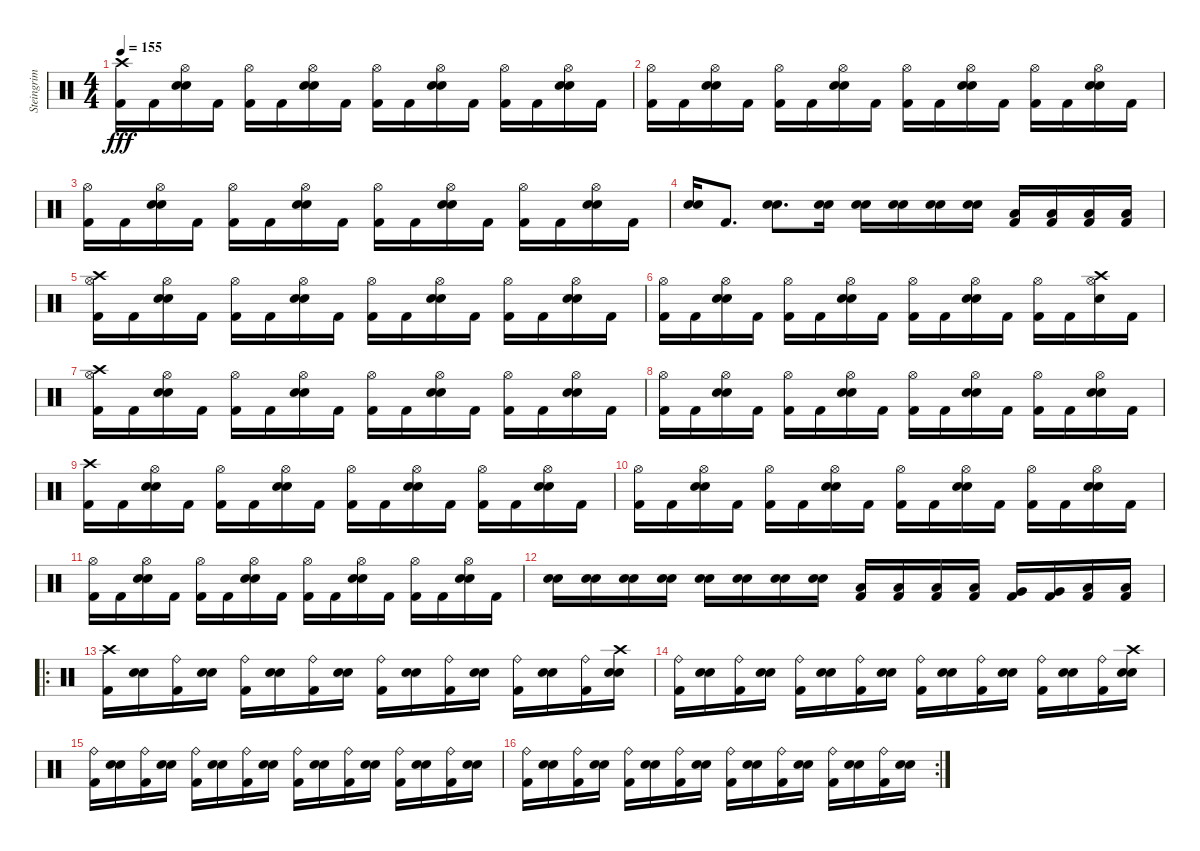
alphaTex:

\track ("Steingrim" "Steingrim") {instrument percussion}
\staff {score}
\articulation defaults
\ts (4 4)
\tempo 155
\clef neutral
\ks c
("Kick (hit) 2" "Crash high (hit)").16{dy fff} "Kick (hit) 2".16 ("Snare (hit) 2" "Electric Snare (hit)" "Hi-Hat (open)").16 "Kick (hit) 2".16 ("Kick (hit) 2" "Hi-Hat (open)").16 "Kick (hit) 2".16 ("Snare (hit) 2" "Electric Snare (hit)" "Hi-Hat (open)").16 "Kick (hit) 2".16 ("Kick (hit) 2" "Hi-Hat (open)").16 "Kick (hit) 2".16 ("Snare (hit) 2" "Electric Snare (hit)" "Hi-Hat (open)").16 "Kick (hit) 2".16 ("Kick (hit) 2" "Hi-Hat (open)").16 "Kick (hit) 2".16 ("Snare (hit) 2" "Electric Snare (hit)" "Hi-Hat (open)").16 "Kick (hit) 2".16 |
("Kick (hit) 2" "Hi-Hat (open)").16 "Kick (hit) 2".16 ("Snare (hit) 2" "Electric Snare (hit)" "Hi-Hat (open)").16 "Kick (hit) 2".16 ("Kick (hit) 2" "Hi-Hat (open)").16 "Kick (hit) 2".16 ("Snare (hit) 2" "Electric Snare (hit)" "Hi-Hat (open)").16 "Kick (hit) 2".16 ("Kick (hit) 2" "Hi-Hat (open)").16 "Kick (hit) 2".16 ("Snare (hit) 2" "Electric Snare (hit)" "Hi-Hat (open)").16 "Kick (hit) 2".16 ("Kick (hit) 2" "Hi-Hat (open)").16 "Kick (hit) 2".16 ("Snare (hit) 2" "Electric Snare (hit)" "Hi-Hat (open)").16 "Kick (hit) 2".16 |
("Kick (hit) 2" "Hi-Hat (open)").16 "Kick (hit) 2".16 ("Snare (hit) 2" "Electric Snare (hit)" "Hi-Hat (open)").16 "Kick (hit) 2".16 ("Kick (hit) 2" "Hi-Hat (open)").16 "Kick (hit) 2".16 ("Snare (hit) 2" "Electric Snare (hit)" "Hi-Hat (open)").16 "Kick (hit) 2".16 ("Kick (hit) 2" "Hi-Hat (open)").16 "Kick (hit) 2".16 ("Snare (hit) 2" "Electric Snare (hit)" "Hi-Hat (open)").16 "Kick (hit) 2".16 ("Kick (hit) 2" "Hi-Hat (open)").16 "Kick (hit) 2".16 ("Snare (hit) 2" "Electric Snare (hit)" "Hi-Hat (open)").16 "Kick (hit) 2".16 |
("Snare (hit) 2" "Electric Snare (hit)").16 "Kick (hit) 2".8{d} ("Snare (hit) 2" "Electric Snare (hit)").8{d} ("Snare (hit) 2" "Electric Snare (hit)").16 ("Snare (hit) 2" "Electric Snare (hit)").16 ("Snare (hit) 2" "Electric Snare (hit)").16 ("Snare (hit) 2" "Electric Snare (hit)").16 ("Snare (hit) 2" "Electric Snare (hit)").16 ("Low Tom (hit)" "Kick (hit) 2").16 ("Low Tom (hit)" "Kick (hit) 2").16 ("Low Tom (hit)" "Kick (hit) 2").16 ("Low Tom (hit)" "Kick (hit) 2").16 |
("Kick (hit) 2" "Hi-Hat (open)" "Crash high (hit)").16 "Kick (hit) 2".16 ("Snare (hit) 2" "Electric Snare (hit)" "Hi-Hat (open)").16 "Kick (hit) 2".16 ("Kick (hit) 2" "Hi-Hat (open)").16 "Kick (hit) 2".16 ("Snare (hit) 2" "Electric Snare (hit)" "Hi-Hat (open)").16 "Kick (hit) 2".16 ("Kick (hit) 2" "Hi-Hat (open)").16 "Kick (hit) 2".16 ("Snare (hit) 2" "Electric Snare (hit)" "Hi-Hat (open)").16 "Kick (hit) 2".16 ("Kick (hit) 2" "Hi-Hat (open)").16 "Kick (hit) 2".16 ("Snare (hit) 2" "Electric Snare (hit)" "Hi-Hat (open)").16 "Kick (hit) 2".16 |
("Kick (hit) 2" "Hi-Hat (open)").16 "Kick (hit) 2".16 ("Snare (hit) 2" "Electric Snare (hit)" "Hi-Hat (open)").16 "Kick (hit) 2".16 ("Kick (hit) 2" "Hi-Hat (open)").16 "Kick (hit) 2".16 ("Snare (hit) 2" "Electric Snare (hit)" "Hi-Hat (open)").16 "Kick (hit) 2".16 ("Kick (hit) 2" "Hi-Hat (open)").16 "Kick (hit) 2".16 ("Snare (hit) 2" "Electric Snare (hit)" "Hi-Hat (open)").16 "Kick (hit) 2".16 ("Kick (hit) 2" "Hi-Hat (open)").16 "Kick (hit) 2".16 ("Snare (hit) 2" "Crash high (hit)" "Hi-Hat (open)").16 "Kick (hit) 2".16 |
("Kick (hit) 2" "Hi-Hat (open)" "Crash high (hit)").16 "Kick (hit) 2".16 ("Snare (hit) 2" "Electric Snare (hit)" "Hi-Hat (open)").16 "Kick (hit) 2".16 ("Kick (hit) 2" "Hi-Hat (open)").16 "Kick (hit) 2".16 ("Snare (hit) 2" "Electric Snare (hit)" "Hi-Hat (open)").16 "Kick (hit) 2".16 ("Kick (hit) 2" "Hi-Hat (open)").16 "Kick (hit) 2".16 ("Snare (hit) 2" "Electric Snare (hit)" "Hi-Hat (open)").16 "Kick (hit) 2".16 ("Kick (hit) 2" "Hi-Hat (open)").16 "Kick (hit) 2".16 ("Snare (hit) 2" "Electric Snare (hit)" "Hi-Hat (open)").16 "Kick (hit) 2".16 |
("Kick (hit) 2" "Hi-Hat (open)").16 "Kick (hit) 2".16 ("Snare (hit) 2" "Electric Snare (hit)" "Hi-Hat (open)").16 "Kick (hit) 2".16 ("Kick (hit) 2" "Hi-Hat (open)").16 "Kick (hit) 2".16 ("Snare (hit) 2" "Electric Snare (hit)" "Hi-Hat (open)").16 "Kick (hit) 2".16 ("Kick (hit) 2" "Hi-Hat (open)").16 "Kick (hit) 2".16 ("Snare (hit) 2" "Electric Snare (hit)" "Hi-Hat (open)").16 "Kick (hit) 2".16 ("Kick (hit) 2" "Hi-Hat (open)").16 "Kick (hit) 2".16 ("Snare (hit) 2" "Electric Snare (hit)" "Hi-Hat (open)").16 "Kick (hit) 2".16 |
("Kick (hit) 2" "Crash high (hit)").16 "Kick (hit) 2".16 ("Snare (hit) 2" "Electric Snare (hit)" "Hi-Hat (open)").16 "Kick (hit) 2".16 ("Kick (hit) 2" "Hi-Hat (open)").16 "Kick (hit) 2".16 ("Snare (hit) 2" "Electric Snare (hit)" "Hi-Hat (open)").16 "Kick (hit) 2".16 ("Kick (hit) 2" "Hi-Hat (open)").16 "Kick (hit) 2".16 ("Snare (hit) 2" "Electric Snare (hit)" "Hi-Hat (open)").16 "Kick (hit) 2".16 ("Kick (hit) 2" "Hi-Hat (open)").16 "Kick (hit) 2".16 ("Snare (hit) 2" "Electric Snare (hit)" "Hi-Hat (open)").16 "Kick (hit) 2".16 |
("Kick (hit) 2" "Hi-Hat (open)").16 "Kick (hit) 2".16 ("Snare (hit) 2" "Electric Snare (hit)" "Hi-Hat (open)").16 "Kick (hit) 2".16 ("Kick (hit) 2" "Hi-Hat (open)").16 "Kick (hit) 2".16 ("Snare (hit) 2" "Electric Snare (hit)" "Hi-Hat (open)").16 "Kick (hit) 2".16 ("Kick (hit) 2" "Hi-Hat (open)").16 "Kick (hit) 2".16 ("Snare (hit) 2" "Electric Snare (hit)" "Hi-Hat (open)").16 "Kick (hit) 2".16 ("Kick (hit) 2" "Hi-Hat (open)").16 "Kick (hit) 2".16 ("Snare (hit) 2" "Electric Snare (hit)" "Hi-Hat (open)").16 "Kick (hit) 2".16 |
("Kick (hit) 2" "Hi-Hat (open)").16 "Kick (hit) 2".16 ("Snare (hit) 2" "Electric Snare (hit)" "Hi-Hat (open)").16 "Kick (hit) 2".16 ("Kick (hit) 2" "Hi-Hat (open)").16 "Kick (hit) 2".16 ("Snare (hit) 2" "Electric Snare (hit)" "Hi-Hat (open)").16 "Kick (hit) 2".16 ("Kick (hit) 2" "Hi-Hat (open)").16 "Kick (hit) 2".16 ("Snare (hit) 2" "Electric Snare (hit)" "Hi-Hat (open)").16 "Kick (hit) 2".16 ("Kick (hit) 2" "Hi-Hat (open)").16 "Kick (hit) 2".16 ("Snare (hit) 2" "Electric Snare (hit)" "Hi-Hat (open)").16 "Kick (hit) 2".16 |
("Snare (hit) 2" "Electric Snare (hit)").16 ("Snare (hit) 2" "Electric Snare (hit)").16 ("Snare (hit) 2" "Electric Snare (hit)").16 ("Snare (hit) 2" "Electric Snare (hit)").16 ("Snare (hit) 2" "Electric Snare (hit)").16 ("Snare (hit) 2" "Electric Snare (hit)").16 ("Snare (hit) 2" "Electric Snare (hit)").16 ("Snare (hit) 2" "Electric Snare (hit)").16 ("Low Tom (hit)" "Kick (hit) 2").16 ("Low Tom (hit)" "Kick (hit) 2").16 ("Low Tom (hit)" "Kick (hit) 2").16 ("Low Tom (hit)" "Kick (hit) 2").16 ("Very Low Tom (hit)" "Kick (hit) 2").16 ("Very Low Tom (hit)" "Kick (hit) 2").16 ("Low Floor Tom (hit)" "Kick (hit) 2").16 ("Low Floor Tom (hit)" "Kick (hit) 2").16 |
\ro
("Kick (hit) 2" "Crash high (hit)").16 ("Snare (hit) 2" "Electric Snare (hit)").16 ("Kick (hit) 2" "Ride (bell)").16 ("Snare (hit) 2" "Electric Snare (hit)").16 ("Kick (hit) 2" "Ride (bell)").16 ("Snare (hit) 2" "Electric Snare (hit)").16 ("Kick (hit) 2" "Ride (bell)").16 ("Snare (hit) 2" "Electric Snare (hit)").16 ("Kick (hit) 2" "Ride (bell)").16 ("Snare (hit) 2" "Electric Snare (hit)").16 ("Kick (hit) 2" "Ride (bell)").16 ("Snare (hit) 2" "Electric Snare (hit)").16 ("Kick (hit) 2" "Ride (bell)").16 ("Snare (hit) 2" "Electric Snare (hit)").16 ("Kick (hit) 2" "Ride (bell)").16 ("Snare (hit) 2" "Electric Snare (hit)" "Crash high (hit)").16 |
("Kick (hit) 2" "Ride (bell)").16 ("Snare (hit) 2" "Electric Snare (hit)").16 ("Kick (hit) 2" "Ride (bell)").16 ("Snare (hit) 2" "Electric Snare (hit)").16 ("Kick (hit) 2" "Ride (bell)").16 ("Snare (hit) 2" "Electric Snare (hit)").16 ("Kick (hit) 2" "Ride (bell)").16 ("Snare (hit) 2" "Electric Snare (hit)").16 ("Kick (hit) 2" "Ride (bell)").16 ("Snare (hit) 2" "Electric Snare (hit)").16 ("Kick (hit) 2" "Ride (bell)").16 ("Snare (hit) 2" "Electric Snare (hit)").16 ("Kick (hit) 2" "Ride (bell)").16 ("Snare (hit) 2" "Electric Snare (hit)").16 ("Kick (hit) 2" "Ride (bell)").16 ("Snare (hit) 2" "Electric Snare (hit)" "Crash high (hit)").16 |
("Kick (hit) 2" "Ride (bell)").16 ("Snare (hit) 2" "Electric Snare (hit)").16 ("Kick (hit) 2" "Ride (bell)").16 ("Snare (hit) 2" "Electric Snare (hit)").16 ("Kick (hit) 2" "Ride (bell)").16 ("Snare (hit) 2" "Electric Snare (hit)").16 ("Kick (hit) 2" "Ride (bell)").16 ("Snare (hit) 2" "Electric Snare (hit)").16 ("Kick (hit) 2" "Ride (bell)").16 ("Snare (hit) 2" "Electric Snare (hit)").16 ("Kick (hit) 2" "Ride (bell)").16 ("Snare (hit) 2" "Electric Snare (hit)").16 ("Kick (hit) 2" "Ride (bell)").16 ("Snare (hit) 2" "Electric Snare (hit)").16 ("Kick (hit) 2" "Ride (bell)").16 ("Snare (hit) 2" "Electric Snare (hit)").16 |
\rc 2
("Kick (hit) 2" "Ride (bell)").16 ("Snare (hit) 2" "Electric Snare (hit)").16 ("Kick (hit) 2" "Ride (bell)").16 ("Snare (hit) 2" "Electric Snare (hit)").16 ("Kick (hit) 2" "Ride (bell)").16 ("Snare (hit) 2" "Electric Snare (hit)").16 ("Kick (hit) 2" "Ride (bell)").16 ("Snare (hit) 2" "Electric Snare (hit)").16 ("Kick (hit) 2" "Ride (bell)").16 ("Snare (hit) 2" "Electric Snare (hit)").16 ("Kick (hit) 2" "Ride (bell)").16 ("Snare (hit) 2" "Electric Snare (hit)").16 ("Kick (hit) 2" "Ride (bell)").16 ("Snare (hit) 2" "Electric Snare (hit)").16 ("Kick (hit) 2" "Ride (bell)").16 ("Snare (hit) 2" "Electric Snare (hit)").16
